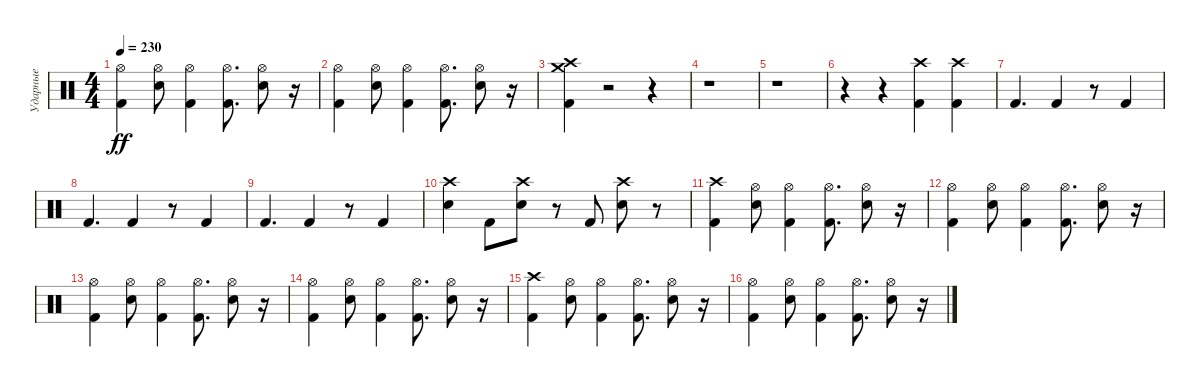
\track ("Ударные" "Ударные") {instrument percussion}
\staff {score}
\articulation defaults
\ts (4 4)
\tempo 230
\clef neutral
\ks c
("Kick (hit) 2" "Hi-Hat (open)").4{dy ff} ("Snare (hit) 2" "Hi-Hat (open)").8 ("Kick (hit) 2" "Hi-Hat (open)").4 ("Kick (hit) 2" "Hi-Hat (open)").8{d} ("Snare (hit) 2" "Hi-Hat (open)").8 r.16 |
("Kick (hit) 2" "Hi-Hat (open)").4 ("Snare (hit) 2" "Hi-Hat (open)").8 ("Kick (hit) 2" "Hi-Hat (open)").4 ("Kick (hit) 2" "Hi-Hat (open)").8{d} ("Snare (hit) 2" "Hi-Hat (open)").8 r.16 |
("Crash medium (hit)" "Crash high (hit)" "Kick (hit) 2").4 r.2 r.4 |
r.1 |
r.1 |
r.4 r.4 ("Crash high (hit)" "Kick (hit) 2").4 ("Crash high (hit)" "Kick (hit) 2").4 |
"Kick (hit) 2".4{d} "Kick (hit) 2".4 r.8 "Kick (hit) 2".4 |
"Kick (hit) 2".4{d} "Kick (hit) 2".4 r.8 "Kick (hit) 2".4 |
"Kick (hit) 2".4{d} "Kick (hit) 2".4 r.8 "Kick (hit) 2".4 |
("Crash high (hit)" "Snare (hit) 2").4 "Kick (hit) 2".8 ("Snare (hit) 2" "Crash high (hit)").8 r.8 "Kick (hit) 2".8 ("Crash high (hit)" "Snare (hit) 2").8 r.8 |
("Kick (hit) 2" "Crash high (hit)").4 ("Snare (hit) 2" "Hi-Hat (open)").8 ("Kick (hit) 2" "Hi-Hat (open)").4 ("Kick (hit) 2" "Hi-Hat (open)").8{d} ("Snare (hit) 2" "Hi-Hat (open)").8 r.16 |
("Kick (hit) 2" "Hi-Hat (open)").4 ("Snare (hit) 2" "Hi-Hat (open)").8 ("Kick (hit) 2" "Hi-Hat (open)").4 ("Kick (hit) 2" "Hi-Hat (open)").8{d} ("Snare (hit) 2" "Hi-Hat (open)").8 r.16 |
("Kick (hit) 2" "Hi-Hat (open)").4 ("Snare (hit) 2" "Hi-Hat (open)").8 ("Kick (hit) 2" "Hi-Hat (open)").4 ("Kick (hit) 2" "Hi-Hat (open)").8{d} ("Snare (hit) 2" "Hi-Hat (open)").8 r.16 |
("Kick (hit) 2" "Hi-Hat (open)").4 ("Snare (hit) 2" "Hi-Hat (open)").8 ("Kick (hit) 2" "Hi-Hat (open)").4 ("Kick (hit) 2" "Hi-Hat (open)").8{d} ("Snare (hit) 2" "Hi-Hat (open)").8 r.16 |
("Kick (hit) 2" "Crash high (hit)").4 ("Snare (hit) 2" "Hi-Hat (open)").8 ("Kick (hit) 2" "Hi-Hat (open)").4 ("Kick (hit) 2" "Hi-Hat (open)").8{d} ("Snare (hit) 2" "Hi-Hat (open)").8 r.16 |
("Kick (hit) 2" "Hi-Hat (open)").4 ("Snare (hit) 2" "Hi-Hat (open)").8 ("Kick (hit) 2" "Hi-Hat (open)").4 ("Kick (hit) 2" "Hi-Hat (open)").8{d} ("Snare (hit) 2" "Hi-Hat (open)").8 r.16
